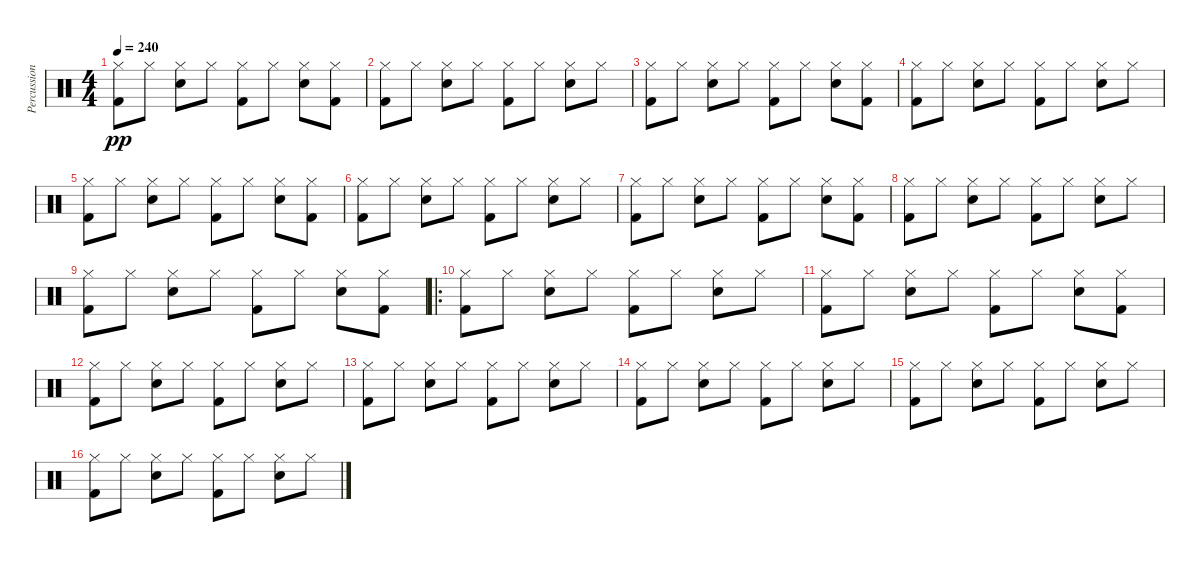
\track ("Percussion" "Percussion") {instrument percussion}
\staff {score}
\articulation defaults
\ts (4 4)
\tempo 240
\clef neutral
\ks c
("Kick (hit) 2" "Hi-Hat (closed)").8{dy pp} "Hi-Hat (closed)".8 ("Electric Snare (hit)" "Hi-Hat (closed)").8 "Hi-Hat (closed)".8 ("Kick (hit) 2" "Hi-Hat (closed)").8 "Hi-Hat (closed)".8 ("Electric Snare (hit)" "Hi-Hat (closed)").8 ("Kick (hit) 2" "Hi-Hat (closed)").8 |
("Kick (hit) 2" "Hi-Hat (closed)").8 "Hi-Hat (closed)".8 ("Electric Snare (hit)" "Hi-Hat (closed)").8 "Hi-Hat (closed)".8 ("Kick (hit) 2" "Hi-Hat (closed)").8 "Hi-Hat (closed)".8 ("Electric Snare (hit)" "Hi-Hat (closed)").8 "Hi-Hat (closed)".8 |
("Kick (hit) 2" "Hi-Hat (closed)").8 "Hi-Hat (closed)".8 ("Electric Snare (hit)" "Hi-Hat (closed)").8 "Hi-Hat (closed)".8 ("Kick (hit) 2" "Hi-Hat (closed)").8 "Hi-Hat (closed)".8 ("Electric Snare (hit)" "Hi-Hat (closed)").8 ("Kick (hit) 2" "Hi-Hat (closed)").8 |
("Kick (hit) 2" "Hi-Hat (closed)").8 "Hi-Hat (closed)".8 ("Electric Snare (hit)" "Hi-Hat (closed)").8 "Hi-Hat (closed)".8 ("Kick (hit) 2" "Hi-Hat (closed)").8 "Hi-Hat (closed)".8 ("Electric Snare (hit)" "Hi-Hat (closed)").8 "Hi-Hat (closed)".8 |
("Kick (hit) 2" "Hi-Hat (closed)").8 "Hi-Hat (closed)".8 ("Electric Snare (hit)" "Hi-Hat (closed)").8 "Hi-Hat (closed)".8 ("Kick (hit) 2" "Hi-Hat (closed)").8 "Hi-Hat (closed)".8 ("Electric Snare (hit)" "Hi-Hat (closed)").8 ("Kick (hit) 2" "Hi-Hat (closed)").8 |
("Kick (hit) 2" "Hi-Hat (closed)").8 "Hi-Hat (closed)".8 ("Electric Snare (hit)" "Hi-Hat (closed)").8 "Hi-Hat (closed)".8 ("Kick (hit) 2" "Hi-Hat (closed)").8 "Hi-Hat (closed)".8 ("Electric Snare (hit)" "Hi-Hat (closed)").8 "Hi-Hat (closed)".8 |
("Kick (hit) 2" "Hi-Hat (closed)").8 "Hi-Hat (closed)".8 ("Electric Snare (hit)" "Hi-Hat (closed)").8 "Hi-Hat (closed)".8 ("Kick (hit) 2" "Hi-Hat (closed)").8 "Hi-Hat (closed)".8 ("Electric Snare (hit)" "Hi-Hat (closed)").8 ("Kick (hit) 2" "Hi-Hat (closed)").8 |
("Kick (hit) 2" "Hi-Hat (closed)").8 "Hi-Hat (closed)".8 ("Electric Snare (hit)" "Hi-Hat (closed)").8 "Hi-Hat (closed)".8 ("Kick (hit) 2" "Hi-Hat (closed)").8 "Hi-Hat (closed)".8 ("Electric Snare (hit)" "Hi-Hat (closed)").8 "Hi-Hat (closed)".8 |
("Kick (hit) 2" "Hi-Hat (closed)").8 "Hi-Hat (closed)".8 ("Electric Snare (hit)" "Hi-Hat (closed)").8 "Hi-Hat (closed)".8 ("Kick (hit) 2" "Hi-Hat (closed)").8 "Hi-Hat (closed)".8 ("Electric Snare (hit)" "Hi-Hat (closed)").8 ("Kick (hit) 2" "Hi-Hat (closed)").8 |
\ro
("Kick (hit) 2" "Hi-Hat (closed)").8 "Hi-Hat (closed)".8 ("Electric Snare (hit)" "Hi-Hat (closed)").8 "Hi-Hat (closed)".8 ("Kick (hit) 2" "Hi-Hat (closed)").8 "Hi-Hat (closed)".8 ("Electric Snare (hit)" "Hi-Hat (closed)").8 "Hi-Hat (closed)".8 |
("Kick (hit) 2" "Hi-Hat (closed)").8 "Hi-Hat (closed)".8 ("Electric Snare (hit)" "Hi-Hat (closed)").8 "Hi-Hat (closed)".8 ("Kick (hit) 2" "Hi-Hat (closed)").8 "Hi-Hat (closed)".8 ("Electric Snare (hit)" "Hi-Hat (closed)").8 ("Kick (hit) 2" "Hi-Hat (closed)").8 |
("Kick (hit) 2" "Hi-Hat (closed)").8 "Hi-Hat (closed)".8 ("Electric Snare (hit)" "Hi-Hat (closed)").8 "Hi-Hat (closed)".8 ("Kick (hit) 2" "Hi-Hat (closed)").8 "Hi-Hat (closed)".8 ("Electric Snare (hit)" "Hi-Hat (closed)").8 "Hi-Hat (closed)".8 |
("Kick (hit) 2" "Hi-Hat (closed)").8 "Hi-Hat (closed)".8 ("Electric Snare (hit)" "Hi-Hat (closed)").8 "Hi-Hat (closed)".8 ("Kick (hit) 2" "Hi-Hat (closed)").8 "Hi-Hat (closed)".8 ("Electric Snare (hit)" "Hi-Hat (closed)").8 "Hi-Hat (closed)".8 |
("Kick (hit) 2" "Hi-Hat (closed)").8 "Hi-Hat (closed)".8 ("Electric Snare (hit)" "Hi-Hat (closed)").8 "Hi-Hat (closed)".8 ("Kick (hit) 2" "Hi-Hat (closed)").8 "Hi-Hat (closed)".8 ("Electric Snare (hit)" "Hi-Hat (closed)").8 "Hi-Hat (closed)".8 |
("Kick (hit) 2" "Hi-Hat (closed)").8 "Hi-Hat (closed)".8 ("Electric Snare (hit)" "Hi-Hat (closed)").8 "Hi-Hat (closed)".8 ("Kick (hit) 2" "Hi-Hat (closed)").8 "Hi-Hat (closed)".8 ("Electric Snare (hit)" "Hi-Hat (closed)").8 "Hi-Hat (closed)".8 |
("Kick (hit) 2" "Hi-Hat (closed)").8 "Hi-Hat (closed)".8 ("Electric Snare (hit)" "Hi-Hat (closed)").8 "Hi-Hat (closed)".8 ("Kick (hit) 2" "Hi-Hat (closed)").8 "Hi-Hat (closed)".8 ("Electric Snare (hit)" "Hi-Hat (closed)").8 "Hi-Hat (closed)".8
